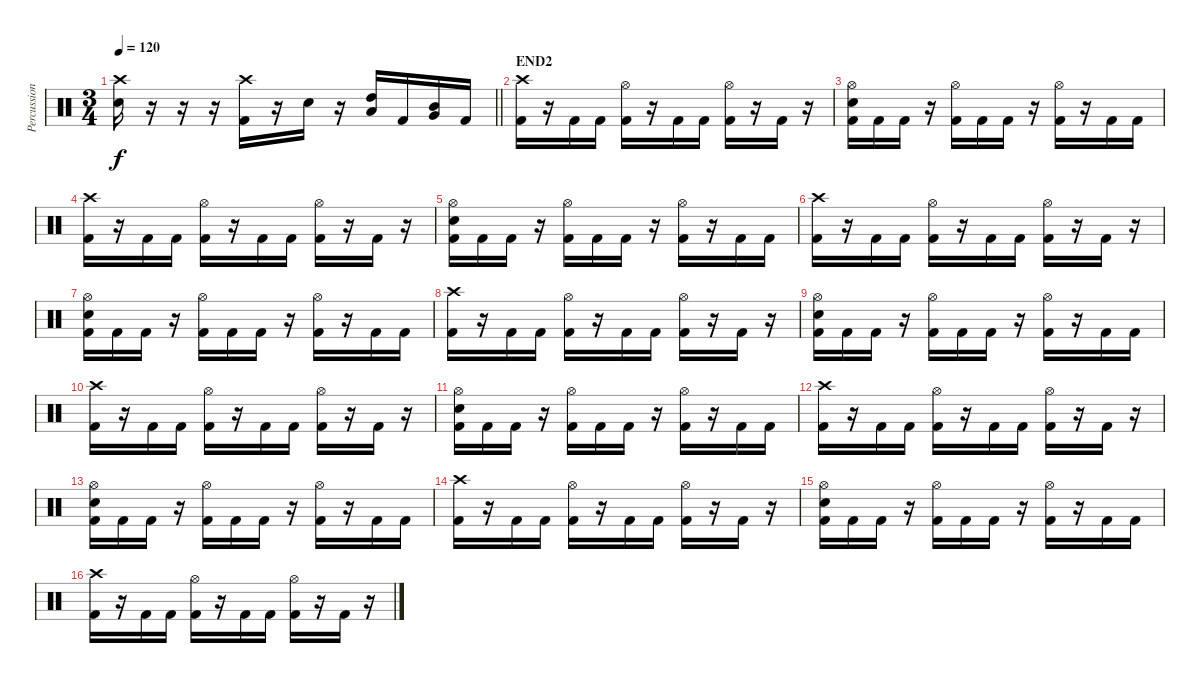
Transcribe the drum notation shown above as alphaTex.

\track ("Percussion" "Percussion") {instrument percussion}
\staff {score}
\articulation defaults
\ts (3 4)
\tempo 120
\clef neutral
\barLineRight lightlight
\ks c
("Electric Snare (hit)" "Crash high (hit)").16{dy f} r.16 r.16 r.16 ("Kick (hit) 2" "Crash high (hit)").16 r.16 "Electric Snare (hit)".16 r.16 ("High Tom (hit)" "Low Tom (hit)").16 "Kick (hit) 2".16 ("Mid Tom (hit)" "Very Low Tom (hit)").16 "Kick (hit) 2".16 |
\section ("" "END2")
("Kick (hit) 2" "Crash high (hit)").16 r.16 "Kick (hit) 2".16 "Kick (hit) 2".16 ("Kick (hit) 2" "Hi-Hat (open)").16 r.16 "Kick (hit) 2".16 "Kick (hit) 2".16 ("Kick (hit) 2" "Hi-Hat (open)").16 r.16 "Kick (hit) 2".16 r.16 |
("Kick (hit) 2" "Electric Snare (hit)" "Hi-Hat (open)").16 "Kick (hit) 2".16 "Kick (hit) 2".16 r.16 ("Kick (hit) 2" "Hi-Hat (open)").16 "Kick (hit) 2".16 "Kick (hit) 2".16 r.16 ("Kick (hit) 2" "Hi-Hat (open)").16 r.16 "Kick (hit) 2".16 "Kick (hit) 2".16 |
("Kick (hit) 2" "Crash high (hit)").16 r.16 "Kick (hit) 2".16 "Kick (hit) 2".16 ("Kick (hit) 2" "Hi-Hat (open)").16 r.16 "Kick (hit) 2".16 "Kick (hit) 2".16 ("Kick (hit) 2" "Hi-Hat (open)").16 r.16 "Kick (hit) 2".16 r.16 |
("Kick (hit) 2" "Electric Snare (hit)" "Hi-Hat (open)").16 "Kick (hit) 2".16 "Kick (hit) 2".16 r.16 ("Kick (hit) 2" "Hi-Hat (open)").16 "Kick (hit) 2".16 "Kick (hit) 2".16 r.16 ("Kick (hit) 2" "Hi-Hat (open)").16 r.16 "Kick (hit) 2".16 "Kick (hit) 2".16 |
("Kick (hit) 2" "Crash high (hit)").16 r.16 "Kick (hit) 2".16 "Kick (hit) 2".16 ("Kick (hit) 2" "Hi-Hat (open)").16 r.16 "Kick (hit) 2".16 "Kick (hit) 2".16 ("Kick (hit) 2" "Hi-Hat (open)").16 r.16 "Kick (hit) 2".16 r.16 |
("Kick (hit) 2" "Electric Snare (hit)" "Hi-Hat (open)").16 "Kick (hit) 2".16 "Kick (hit) 2".16 r.16 ("Kick (hit) 2" "Hi-Hat (open)").16 "Kick (hit) 2".16 "Kick (hit) 2".16 r.16 ("Kick (hit) 2" "Hi-Hat (open)").16 r.16 "Kick (hit) 2".16 "Kick (hit) 2".16 |
("Kick (hit) 2" "Crash high (hit)").16 r.16 "Kick (hit) 2".16 "Kick (hit) 2".16 ("Kick (hit) 2" "Hi-Hat (open)").16 r.16 "Kick (hit) 2".16 "Kick (hit) 2".16 ("Kick (hit) 2" "Hi-Hat (open)").16 r.16 "Kick (hit) 2".16 r.16 |
("Kick (hit) 2" "Electric Snare (hit)" "Hi-Hat (open)").16 "Kick (hit) 2".16 "Kick (hit) 2".16 r.16 ("Kick (hit) 2" "Hi-Hat (open)").16 "Kick (hit) 2".16 "Kick (hit) 2".16 r.16 ("Kick (hit) 2" "Hi-Hat (open)").16 r.16 "Kick (hit) 2".16 "Kick (hit) 2".16 |
("Kick (hit) 2" "Crash high (hit)").16 r.16 "Kick (hit) 2".16 "Kick (hit) 2".16 ("Kick (hit) 2" "Hi-Hat (open)").16 r.16 "Kick (hit) 2".16 "Kick (hit) 2".16 ("Kick (hit) 2" "Hi-Hat (open)").16 r.16 "Kick (hit) 2".16 r.16 |
("Kick (hit) 2" "Electric Snare (hit)" "Hi-Hat (open)").16 "Kick (hit) 2".16 "Kick (hit) 2".16 r.16 ("Kick (hit) 2" "Hi-Hat (open)").16 "Kick (hit) 2".16 "Kick (hit) 2".16 r.16 ("Kick (hit) 2" "Hi-Hat (open)").16 r.16 "Kick (hit) 2".16 "Kick (hit) 2".16 |
("Kick (hit) 2" "Crash high (hit)").16 r.16 "Kick (hit) 2".16 "Kick (hit) 2".16 ("Kick (hit) 2" "Hi-Hat (open)").16 r.16 "Kick (hit) 2".16 "Kick (hit) 2".16 ("Kick (hit) 2" "Hi-Hat (open)").16 r.16 "Kick (hit) 2".16 r.16 |
("Kick (hit) 2" "Electric Snare (hit)" "Hi-Hat (open)").16 "Kick (hit) 2".16 "Kick (hit) 2".16 r.16 ("Kick (hit) 2" "Hi-Hat (open)").16 "Kick (hit) 2".16 "Kick (hit) 2".16 r.16 ("Kick (hit) 2" "Hi-Hat (open)").16 r.16 "Kick (hit) 2".16 "Kick (hit) 2".16 |
("Kick (hit) 2" "Crash high (hit)").16 r.16 "Kick (hit) 2".16 "Kick (hit) 2".16 ("Kick (hit) 2" "Hi-Hat (open)").16 r.16 "Kick (hit) 2".16 "Kick (hit) 2".16 ("Kick (hit) 2" "Hi-Hat (open)").16 r.16 "Kick (hit) 2".16 r.16 |
("Kick (hit) 2" "Electric Snare (hit)" "Hi-Hat (open)").16 "Kick (hit) 2".16 "Kick (hit) 2".16 r.16 ("Kick (hit) 2" "Hi-Hat (open)").16 "Kick (hit) 2".16 "Kick (hit) 2".16 r.16 ("Kick (hit) 2" "Hi-Hat (open)").16 r.16 "Kick (hit) 2".16 "Kick (hit) 2".16 |
("Kick (hit) 2" "Crash high (hit)").16 r.16 "Kick (hit) 2".16 "Kick (hit) 2".16 ("Kick (hit) 2" "Hi-Hat (open)").16 r.16 "Kick (hit) 2".16 "Kick (hit) 2".16 ("Kick (hit) 2" "Hi-Hat (open)").16 r.16 "Kick (hit) 2".16 r.16
